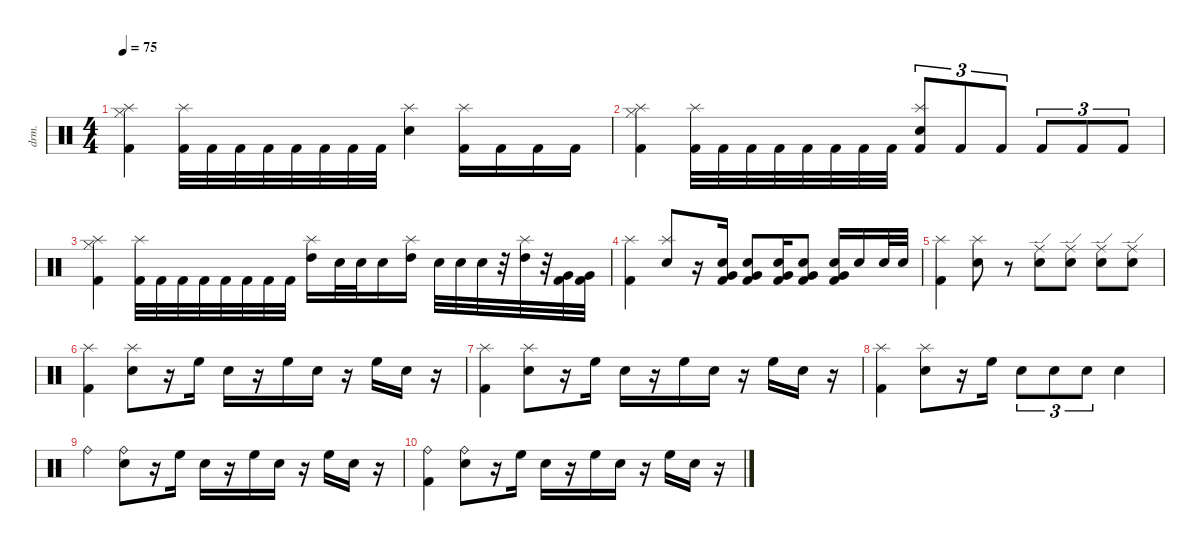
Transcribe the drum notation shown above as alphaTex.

\defaultSystemsLayout 4
\hideDynamics
\bracketExtendMode nobrackets
\otherSystemsTrackNameOrientation horizontal
\track ("Drumkit" "drm.") {instrument percussion}
\staff {score}
\articulation defaults
\ts (4 4)
\tempo 75
\clef neutral
\ks c
("Splash (hit)" "Kick (hit) 2" "Hi-Hat (closed)").4{dy mf beam Down} ("Splash (hit)" "Kick (hit) 2").32{beam Down} "Kick (hit) 2".32{beam Down} "Kick (hit) 2".32{beam Down} "Kick (hit) 2".32{beam Down} "Kick (hit) 2".32{beam Down} "Kick (hit) 2".32{beam Down} "Kick (hit) 2".32{beam Down} "Kick (hit) 2".32{beam Down} ("Splash (hit)" "Snare (hit) 2").4{beam Down} ("Splash (hit)" "Kick (hit) 2").16{beam Down} "Kick (hit) 2".16{beam Down} "Kick (hit) 2".16{beam Down} "Kick (hit) 2".16{beam Down} |
("Splash (hit)" "Kick (hit) 2" "Hi-Hat (closed)").4{beam Down} ("Splash (hit)" "Kick (hit) 2").32{beam Down} "Kick (hit) 2".32{beam Down} "Kick (hit) 2".32{beam Down} "Kick (hit) 2".32{beam Down} "Kick (hit) 2".32{beam Down} "Kick (hit) 2".32{beam Down} "Kick (hit) 2".32{beam Down} "Kick (hit) 2".32{beam Down} ("Kick (hit) 2" "Splash (hit)" "Snare (hit) 2").8{tu (3 2) beam Up} "Kick (hit) 2".8{tu (3 2) beam Up} "Kick (hit) 2".8{tu (3 2) beam Up} "Kick (hit) 2".8{tu (3 2) beam Up} "Kick (hit) 2".8{tu (3 2) beam Up} "Kick (hit) 2".8{tu (3 2) beam Up} |
("Splash (hit)" "Kick (hit) 2" "Hi-Hat (closed)").4{beam Down} ("Splash (hit)" "Kick (hit) 2").32{beam Down} "Kick (hit) 2".32{beam Down} "Kick (hit) 2".32{beam Down} "Kick (hit) 2".32{beam Down} "Kick (hit) 2".32{beam Down} "Kick (hit) 2".32{beam Down} "Kick (hit) 2".32{beam Down} "Kick (hit) 2".32{beam Down} ("High Tom (hit)" "Splash (hit)").16{beam Down} "Snare (hit) 2".32{beam Down} "Snare (hit) 2".32{beam Down} "Snare (hit) 2".16{beam Down} ("High Tom (hit)" "Splash (hit)").16{beam Down} "Snare (hit) 2".32{beam Down} "Snare (hit) 2".32{beam Down} "Snare (hit) 2".32{beam Down} r.32{beam Down} ("High Tom (hit)" "Splash (hit)").32{beam Down} r.32{beam Down} ("Very Low Tom (hit)" "Kick (hit) 2").32{beam Down} ("Very Low Tom (hit)" "Kick (hit) 2").32{beam Down} |
("Kick (hit) 2" "Splash (hit)").4{beam Down} ("Splash (hit)" "Snare (hit) 2").8{beam Up} r.16{beam Up} ("Kick (hit) 2" "Snare (hit) 2" "Very Low Tom (hit)").16{beam Up} ("Snare (hit) 2" "Kick (hit) 2" "Very Low Tom (hit)").8{beam Up} ("Kick (hit) 2" "Snare (hit) 2" "Very Low Tom (hit)").16{beam Up} ("Snare (hit) 2" "Kick (hit) 2" "Very Low Tom (hit)").8{beam Up} ("Kick (hit) 2" "Snare (hit) 2" "Very Low Tom (hit)").16{beam Up} "Snare (hit) 2".16{beam Up} "Snare (hit) 2".32{beam Up} "Snare (hit) 2".32{beam Up} |
("Kick (hit) 2" "Splash (hit)").4{beam Down} ("Snare (hit) 2" "Splash (hit)").8{beam Down} r.8{beam Down} ("Snare (hit) 2" "Ride (edge)").8{beam Down} ("Snare (hit) 2" "Ride (edge)").8{beam Down} ("Snare (hit) 2" "Ride (edge)").8{beam Down} ("Snare (hit) 2" "Ride (edge)").8{beam Down} |
("Kick (hit) 2" "Splash (hit)").4{beam Down} ("Snare (hit) 2" "Splash (hit)").8{beam Down} r.16{beam Down} "High Floor Tom (hit)".16{beam Down} "Snare (hit) 2".16{beam Down} r.16{beam Down} "High Floor Tom (hit)".16{beam Down} "Snare (hit) 2".16{beam Down} r.16{beam Down} "High Floor Tom (hit)".16{beam Down} "Snare (hit) 2".16{beam Down} r.16{beam Down} |
("Kick (hit) 2" "Splash (hit)").4{beam Down} ("Snare (hit) 2" "Splash (hit)").8{beam Down} r.16{beam Down} "High Floor Tom (hit)".16{beam Down} "Snare (hit) 2".16{beam Down} r.16{beam Down} "High Floor Tom (hit)".16{beam Down} "Snare (hit) 2".16{beam Down} r.16{beam Down} "High Floor Tom (hit)".16{beam Down} "Snare (hit) 2".16{beam Down} r.16{beam Down} |
("Kick (hit) 2" "Splash (hit)").4{beam Down} ("Snare (hit) 2" "Splash (hit)").8{beam Down} r.16{beam Down} "High Floor Tom (hit)".16{beam Down} "Snare (hit) 2".8{tu (3 2) beam Down} "Snare (hit) 2".8{tu (3 2) beam Down} "Snare (hit) 2".8{tu (3 2) beam Down} "Snare (hit) 2".4{beam Down} |
"Ride (bell)".4{beam Down} ("Snare (hit) 2" "Ride (bell)").8{beam Down} r.16{beam Down} "High Floor Tom (hit)".16{beam Down} "Snare (hit) 2".16{beam Down} r.16{beam Down} "High Floor Tom (hit)".16{beam Down} "Snare (hit) 2".16{beam Down} r.16{beam Down} "High Floor Tom (hit)".16{beam Down} "Snare (hit) 2".16{beam Down} r.16{beam Down} |
("Kick (hit) 2" "Ride (bell)").4{beam Down} ("Snare (hit) 2" "Ride (bell)").8{beam Down} r.16{beam Down} "High Floor Tom (hit)".16{beam Down} "Snare (hit) 2".16{beam Down} r.16{beam Down} "High Floor Tom (hit)".16{beam Down} "Snare (hit) 2".16{beam Down} r.16{beam Down} "High Floor Tom (hit)".16{beam Down} "Snare (hit) 2".16{beam Down} r.16{beam Down}
